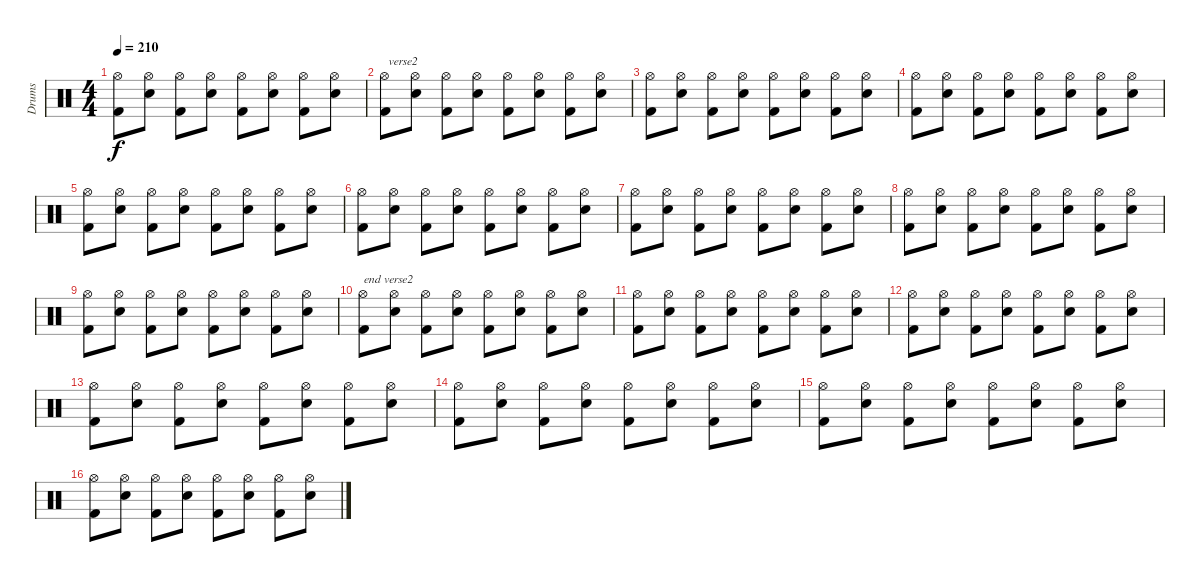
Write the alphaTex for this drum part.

\track ("Drums" "Drums") {instrument percussion}
\staff {score}
\articulation defaults
\ts (4 4)
\tempo 210
\clef neutral
\ks c
("Kick (hit) 2" "Hi-Hat (open)").8{dy f} ("Snare (hit) 2" "Hi-Hat (open)").8 ("Kick (hit) 2" "Hi-Hat (open)").8 ("Snare (hit) 2" "Hi-Hat (open)").8 ("Kick (hit) 2" "Hi-Hat (open)").8 ("Snare (hit) 2" "Hi-Hat (open)").8 ("Kick (hit) 2" "Hi-Hat (open)").8 ("Snare (hit) 2" "Hi-Hat (open)").8 |
("Kick (hit) 2" "Hi-Hat (open)").8{txt " verse2"} ("Snare (hit) 2" "Hi-Hat (open)").8 ("Kick (hit) 2" "Hi-Hat (open)").8 ("Snare (hit) 2" "Hi-Hat (open)").8 ("Kick (hit) 2" "Hi-Hat (open)").8 ("Snare (hit) 2" "Hi-Hat (open)").8 ("Kick (hit) 2" "Hi-Hat (open)").8 ("Snare (hit) 2" "Hi-Hat (open)").8 |
("Kick (hit) 2" "Hi-Hat (open)").8 ("Snare (hit) 2" "Hi-Hat (open)").8 ("Kick (hit) 2" "Hi-Hat (open)").8 ("Snare (hit) 2" "Hi-Hat (open)").8 ("Kick (hit) 2" "Hi-Hat (open)").8 ("Snare (hit) 2" "Hi-Hat (open)").8 ("Kick (hit) 2" "Hi-Hat (open)").8 ("Snare (hit) 2" "Hi-Hat (open)").8 |
("Kick (hit) 2" "Hi-Hat (open)").8 ("Snare (hit) 2" "Hi-Hat (open)").8 ("Kick (hit) 2" "Hi-Hat (open)").8 ("Snare (hit) 2" "Hi-Hat (open)").8 ("Kick (hit) 2" "Hi-Hat (open)").8 ("Snare (hit) 2" "Hi-Hat (open)").8 ("Kick (hit) 2" "Hi-Hat (open)").8 ("Snare (hit) 2" "Hi-Hat (open)").8 |
("Kick (hit) 2" "Hi-Hat (open)").8 ("Snare (hit) 2" "Hi-Hat (open)").8 ("Kick (hit) 2" "Hi-Hat (open)").8 ("Snare (hit) 2" "Hi-Hat (open)").8 ("Kick (hit) 2" "Hi-Hat (open)").8 ("Snare (hit) 2" "Hi-Hat (open)").8 ("Kick (hit) 2" "Hi-Hat (open)").8 ("Snare (hit) 2" "Hi-Hat (open)").8 |
("Kick (hit) 2" "Hi-Hat (open)").8 ("Snare (hit) 2" "Hi-Hat (open)").8 ("Kick (hit) 2" "Hi-Hat (open)").8 ("Snare (hit) 2" "Hi-Hat (open)").8 ("Kick (hit) 2" "Hi-Hat (open)").8 ("Snare (hit) 2" "Hi-Hat (open)").8 ("Kick (hit) 2" "Hi-Hat (open)").8 ("Snare (hit) 2" "Hi-Hat (open)").8 |
("Kick (hit) 2" "Hi-Hat (open)").8 ("Snare (hit) 2" "Hi-Hat (open)").8 ("Kick (hit) 2" "Hi-Hat (open)").8 ("Snare (hit) 2" "Hi-Hat (open)").8 ("Kick (hit) 2" "Hi-Hat (open)").8 ("Snare (hit) 2" "Hi-Hat (open)").8 ("Kick (hit) 2" "Hi-Hat (open)").8 ("Snare (hit) 2" "Hi-Hat (open)").8 |
("Kick (hit) 2" "Hi-Hat (open)").8 ("Snare (hit) 2" "Hi-Hat (open)").8 ("Kick (hit) 2" "Hi-Hat (open)").8 ("Snare (hit) 2" "Hi-Hat (open)").8 ("Kick (hit) 2" "Hi-Hat (open)").8 ("Snare (hit) 2" "Hi-Hat (open)").8 ("Kick (hit) 2" "Hi-Hat (open)").8 ("Snare (hit) 2" "Hi-Hat (open)").8 |
("Kick (hit) 2" "Hi-Hat (open)").8 ("Snare (hit) 2" "Hi-Hat (open)").8 ("Kick (hit) 2" "Hi-Hat (open)").8 ("Snare (hit) 2" "Hi-Hat (open)").8 ("Kick (hit) 2" "Hi-Hat (open)").8 ("Snare (hit) 2" "Hi-Hat (open)").8 ("Kick (hit) 2" "Hi-Hat (open)").8 ("Snare (hit) 2" "Hi-Hat (open)").8 |
("Kick (hit) 2" "Hi-Hat (open)").8{txt "end verse2"} ("Snare (hit) 2" "Hi-Hat (open)").8 ("Kick (hit) 2" "Hi-Hat (open)").8 ("Snare (hit) 2" "Hi-Hat (open)").8 ("Kick (hit) 2" "Hi-Hat (open)").8 ("Snare (hit) 2" "Hi-Hat (open)").8 ("Kick (hit) 2" "Hi-Hat (open)").8 ("Snare (hit) 2" "Hi-Hat (open)").8 |
("Kick (hit) 2" "Hi-Hat (open)").8 ("Snare (hit) 2" "Hi-Hat (open)").8 ("Kick (hit) 2" "Hi-Hat (open)").8 ("Snare (hit) 2" "Hi-Hat (open)").8 ("Kick (hit) 2" "Hi-Hat (open)").8 ("Snare (hit) 2" "Hi-Hat (open)").8 ("Kick (hit) 2" "Hi-Hat (open)").8 ("Snare (hit) 2" "Hi-Hat (open)").8 |
("Kick (hit) 2" "Hi-Hat (open)").8 ("Snare (hit) 2" "Hi-Hat (open)").8 ("Kick (hit) 2" "Hi-Hat (open)").8 ("Snare (hit) 2" "Hi-Hat (open)").8 ("Kick (hit) 2" "Hi-Hat (open)").8 ("Snare (hit) 2" "Hi-Hat (open)").8 ("Kick (hit) 2" "Hi-Hat (open)").8 ("Snare (hit) 2" "Hi-Hat (open)").8 |
("Kick (hit) 2" "Hi-Hat (open)").8 ("Snare (hit) 2" "Hi-Hat (open)").8 ("Kick (hit) 2" "Hi-Hat (open)").8 ("Snare (hit) 2" "Hi-Hat (open)").8 ("Kick (hit) 2" "Hi-Hat (open)").8 ("Snare (hit) 2" "Hi-Hat (open)").8 ("Kick (hit) 2" "Hi-Hat (open)").8 ("Snare (hit) 2" "Hi-Hat (open)").8 |
("Kick (hit) 2" "Hi-Hat (open)").8 ("Snare (hit) 2" "Hi-Hat (open)").8 ("Kick (hit) 2" "Hi-Hat (open)").8 ("Snare (hit) 2" "Hi-Hat (open)").8 ("Kick (hit) 2" "Hi-Hat (open)").8 ("Snare (hit) 2" "Hi-Hat (open)").8 ("Kick (hit) 2" "Hi-Hat (open)").8 ("Snare (hit) 2" "Hi-Hat (open)").8 |
("Kick (hit) 2" "Hi-Hat (open)").8 ("Snare (hit) 2" "Hi-Hat (open)").8 ("Kick (hit) 2" "Hi-Hat (open)").8 ("Snare (hit) 2" "Hi-Hat (open)").8 ("Kick (hit) 2" "Hi-Hat (open)").8 ("Snare (hit) 2" "Hi-Hat (open)").8 ("Kick (hit) 2" "Hi-Hat (open)").8 ("Snare (hit) 2" "Hi-Hat (open)").8 |
("Kick (hit) 2" "Hi-Hat (open)").8 ("Snare (hit) 2" "Hi-Hat (open)").8 ("Kick (hit) 2" "Hi-Hat (open)").8 ("Snare (hit) 2" "Hi-Hat (open)").8 ("Kick (hit) 2" "Hi-Hat (open)").8 ("Snare (hit) 2" "Hi-Hat (open)").8 ("Kick (hit) 2" "Hi-Hat (open)").8 ("Snare (hit) 2" "Hi-Hat (open)").8
